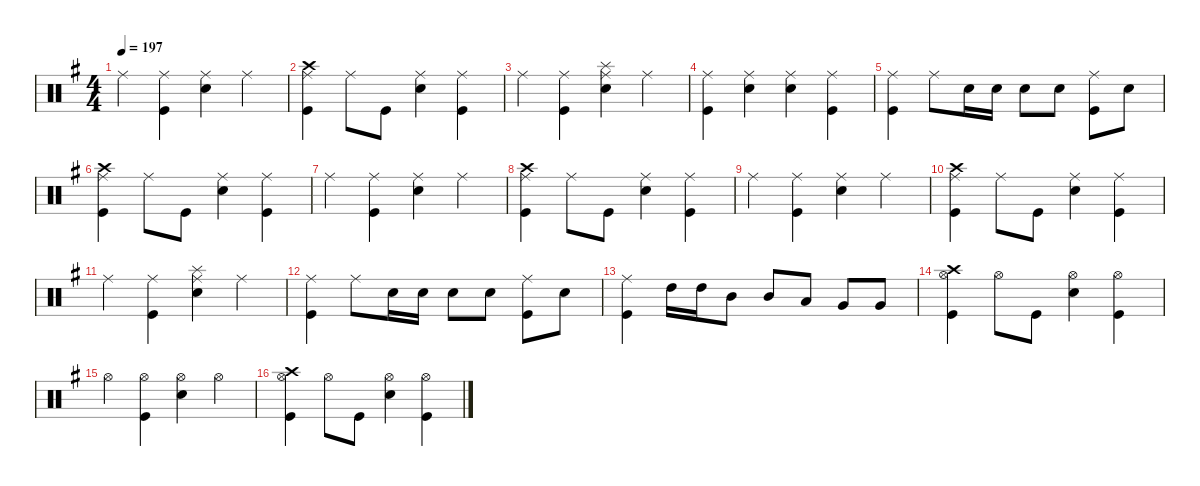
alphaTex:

\defaultSystemsLayout 4
\hideDynamics
\bracketExtendMode nobrackets
\singleTrackTrackNamePolicy hidden
\multiTrackTrackNamePolicy hidden
\firstSystemTrackNameMode fullname
\firstSystemTrackNameOrientation horizontal
\otherSystemsTrackNameOrientation horizontal
\track ("Drums" "drm.") {defaultSystemsLayout 4 instrument percussion}
\staff {score}
\articulation defaults
\ts (4 4)
\tempo 197
\clef neutral
\ks eminor "Ride (middle)"{acc forcenatural}.4{dy f beam Down}
("Ride (middle)"{acc forcenatural} "Kick (hit)"{acc forcenatural}).4{beam Down} ("Ride (middle)"{acc forcenatural} "Snare (hit) 2"{acc forcenatural}).4{beam Down} "Ride (middle)"{acc forcenatural}.4{beam Down} |
("Crash high (hit)"{acc forcenatural} "Ride (middle)"{acc forcenatural} "Kick (hit)"{acc forcenatural}).4{beam Down} "Ride (middle)"{acc forcenatural}.8{beam Down} "Kick (hit)"{acc forcenatural}.8{beam Down} ("Ride (middle)"{acc forcenatural} "Snare (hit) 2"{acc forcenatural}).4{beam Down} ("Ride (middle)"{acc forcenatural} "Kick (hit)"{acc forcenatural}).4{beam Down} |
"Ride (middle)"{acc forcenatural}.4{beam Down} ("Ride (middle)"{acc forcenatural} "Kick (hit)"{acc forcenatural}).4{beam Down} ("Splash (hit)"{acc forcenatural} "Ride (middle)"{acc forcenatural} "Snare (hit) 2"{acc forcenatural}).4{beam Down} "Ride (middle)"{acc forcenatural}.4{beam Down} |
("Ride (middle)"{acc forcenatural} "Kick (hit)"{acc forcenatural}).4{beam Down} ("Ride (middle)"{acc forcenatural} "Snare (hit) 2"{acc forcenatural}).4{beam Down} ("Ride (middle)"{acc forcenatural} "Snare (hit) 2"{acc forcenatural}).4{beam Down} ("Ride (middle)"{acc forcenatural} "Kick (hit)"{acc forcenatural}).4{beam Down} |
("Ride (middle)"{acc forcenatural} "Kick (hit)"{acc forcenatural}).4{beam Down} "Ride (middle)"{acc forcenatural}.8{beam Down} "Snare (hit) 2"{acc forcenatural}.16{dy mf beam Down} "Snare (hit) 2"{acc forcenatural}.16{beam Down} "Snare (hit) 2"{acc forcenatural}.8{dy f beam Down} "Snare (hit) 2"{acc forcenatural}.8{beam Down} ("Ride (middle)"{acc forcenatural} "Kick (hit)"{acc forcenatural}).8{beam Down} "Snare (hit) 2"{acc forcenatural}.8{beam Down} |
("Crash high (hit)"{acc forcenatural} "Ride (middle)"{acc forcenatural} "Kick (hit)"{acc forcenatural}).4{beam Down} "Ride (middle)"{acc forcenatural}.8{beam Down} "Kick (hit)"{acc forcenatural}.8{beam Down} ("Ride (middle)"{acc forcenatural} "Snare (hit) 2"{acc forcenatural}).4{beam Down} ("Ride (middle)"{acc forcenatural} "Kick (hit)"{acc forcenatural}).4{beam Down} |
"Ride (middle)"{acc forcenatural}.4{beam Down} ("Ride (middle)"{acc forcenatural} "Kick (hit)"{acc forcenatural}).4{beam Down} ("Ride (middle)"{acc forcenatural} "Snare (hit) 2"{acc forcenatural}).4{beam Down} "Ride (middle)"{acc forcenatural}.4{beam Down} |
("Crash high (hit)"{acc forcenatural} "Ride (middle)"{acc forcenatural} "Kick (hit)"{acc forcenatural}).4{beam Down} "Ride (middle)"{acc forcenatural}.8{beam Down} "Kick (hit)"{acc forcenatural}.8{beam Down} ("Ride (middle)"{acc forcenatural} "Snare (hit) 2"{acc forcenatural}).4{beam Down} ("Ride (middle)"{acc forcenatural} "Kick (hit)"{acc forcenatural}).4{beam Down} |
"Ride (middle)"{acc forcenatural}.4{beam Down} ("Ride (middle)"{acc forcenatural} "Kick (hit)"{acc forcenatural}).4{beam Down} ("Ride (middle)"{acc forcenatural} "Snare (hit) 2"{acc forcenatural}).4{beam Down} "Ride (middle)"{acc forcenatural}.4{beam Down} |
("Crash high (hit)"{acc forcenatural} "Ride (middle)"{acc forcenatural} "Kick (hit)"{acc forcenatural}).4{beam Down} "Ride (middle)"{acc forcenatural}.8{beam Down} "Kick (hit)"{acc forcenatural}.8{beam Down} ("Ride (middle)"{acc forcenatural} "Snare (hit) 2"{acc forcenatural}).4{beam Down} ("Ride (middle)"{acc forcenatural} "Kick (hit)"{acc forcenatural}).4{beam Down} |
"Ride (middle)"{acc forcenatural}.4{beam Down} ("Ride (middle)"{acc forcenatural} "Kick (hit)"{acc forcenatural}).4{beam Down} ("Splash (hit)"{acc forcenatural} "Ride (middle)"{acc forcenatural} "Snare (hit) 2"{acc forcenatural}).4{beam Down} "Ride (middle)"{acc forcenatural}.4{beam Down} |
("Ride (middle)"{acc forcenatural} "Kick (hit)"{acc forcenatural}).4{beam Down} "Ride (middle)"{acc forcenatural}.8{beam Down} "Snare (hit) 2"{acc forcenatural}.16{dy mf beam Down} "Snare (hit) 2"{acc forcenatural}.16{beam Down} "Snare (hit) 2"{acc forcenatural}.8{dy f beam Down} "Snare (hit) 2"{acc forcenatural}.8{beam Down} ("Ride (middle)"{acc forcenatural} "Kick (hit)"{acc forcenatural}).8{beam Down} "Snare (hit) 2"{acc forcenatural}.8{beam Down} |
("Ride (middle)"{acc forcenatural} "Kick (hit)"{acc forcenatural}).4{beam Down} "High Tom (hit)"{acc forcenatural}.16{beam Down} "High Tom (hit)"{acc forcenatural}.16{beam Down} "Mid Tom (hit)"{acc forcenatural}.8{beam Down} "Mid Tom (hit)"{acc forcenatural}.8{beam Up} "Low Tom (hit)"{acc forcenatural}.8{beam Up} "Very Low Tom (hit)"{acc forcenatural}.8{beam Up} "Very Low Tom (hit)"{acc forcenatural}.8{beam Up} |
("Crash high (hit)"{acc forcenatural} "Hi-Hat (open)"{acc forcenatural} "Kick (hit)"{acc forcenatural}).4{beam Down} "Hi-Hat (open)"{acc forcenatural}.8{beam Down} "Kick (hit)"{acc forcenatural}.8{beam Down} ("Hi-Hat (open)"{acc forcenatural} "Snare (hit) 2"{acc forcenatural}).4{beam Down} ("Hi-Hat (open)"{acc forcenatural} "Kick (hit)"{acc forcenatural}).4{beam Down} |
"Hi-Hat (open)"{acc forcenatural}.4{beam Down} ("Hi-Hat (open)"{acc forcenatural} "Kick (hit)"{acc forcenatural}).4{beam Down} ("Hi-Hat (open)"{acc forcenatural} "Snare (hit) 2"{acc forcenatural}).4{beam Down} "Hi-Hat (open)"{acc forcenatural}.4{beam Down} |
("Crash high (hit)"{acc forcenatural} "Hi-Hat (open)"{acc forcenatural} "Kick (hit)"{acc forcenatural}).4{beam Down} "Hi-Hat (open)"{acc forcenatural}.8{beam Down} "Kick (hit)"{acc forcenatural}.8{beam Down} ("Hi-Hat (open)"{acc forcenatural} "Snare (hit) 2"{acc forcenatural}).4{beam Down} ("Hi-Hat (open)"{acc forcenatural} "Kick (hit)"{acc forcenatural}).4{beam Down}
